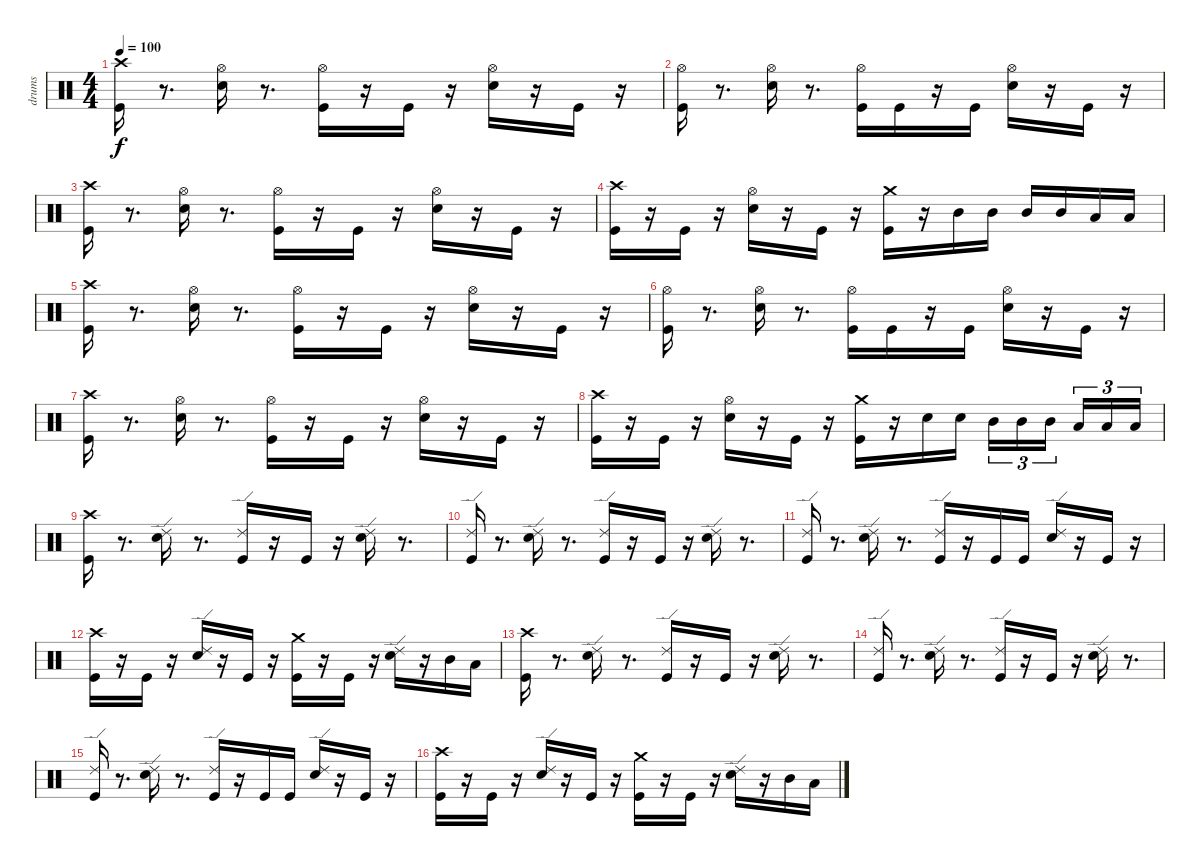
\track ("drums" "drums") {instrument percussion}
\staff {score}
\articulation defaults
\ts (4 4)
\tempo 100
\clef neutral
\ks c
("Crash high (hit)" "Kick (hit)").16{dy f} r.8{d} ("Hi-Hat (open)" "Snare (hit) 2").16 r.8{d} ("Hi-Hat (open)" "Kick (hit)").16 r.16 "Kick (hit)".16 r.16 ("Hi-Hat (open)" "Snare (hit) 2").16 r.16 "Kick (hit)".16 r.16 |
("Hi-Hat (open)" "Kick (hit)").16 r.8{d} ("Hi-Hat (open)" "Snare (hit) 2").16 r.8{d} ("Hi-Hat (open)" "Kick (hit)").16 "Kick (hit)".16 r.16 "Kick (hit)".16 ("Hi-Hat (open)" "Snare (hit) 2").16 r.16 "Kick (hit)".16 r.16 |
("Crash high (hit)" "Kick (hit)").16 r.8{d} ("Hi-Hat (open)" "Snare (hit) 2").16 r.8{d} ("Hi-Hat (open)" "Kick (hit)").16 r.16 "Kick (hit)".16 r.16 ("Hi-Hat (open)" "Snare (hit) 2").16 r.16 "Kick (hit)".16 r.16 |
("Crash high (hit)" "Kick (hit)").16 r.16 "Kick (hit)".16 r.16 ("Hi-Hat (open)" "Snare (hit) 2").16 r.16 "Kick (hit)".16 r.16 ("Crash medium (hit)" "Kick (hit)").16 r.16 "Mid Tom (hit)".16 "Mid Tom (hit)".16 "Mid Tom (hit)".16 "Mid Tom (hit)".16 "Low Tom (hit)".16 "Low Tom (hit)".16 |
("Crash high (hit)" "Kick (hit)").16 r.8{d} ("Hi-Hat (open)" "Snare (hit) 2").16 r.8{d} ("Hi-Hat (open)" "Kick (hit)").16 r.16 "Kick (hit)".16 r.16 ("Hi-Hat (open)" "Snare (hit) 2").16 r.16 "Kick (hit)".16 r.16 |
("Hi-Hat (open)" "Kick (hit)").16 r.8{d} ("Hi-Hat (open)" "Snare (hit) 2").16 r.8{d} ("Hi-Hat (open)" "Kick (hit)").16 "Kick (hit)".16 r.16 "Kick (hit)".16 ("Hi-Hat (open)" "Snare (hit) 2").16 r.16 "Kick (hit)".16 r.16 |
("Crash high (hit)" "Kick (hit)").16 r.8{d} ("Hi-Hat (open)" "Snare (hit) 2").16 r.8{d} ("Hi-Hat (open)" "Kick (hit)").16 r.16 "Kick (hit)".16 r.16 ("Hi-Hat (open)" "Snare (hit) 2").16 r.16 "Kick (hit)".16 r.16 |
("Crash high (hit)" "Kick (hit)").16 r.16 "Kick (hit)".16 r.16 ("Hi-Hat (open)" "Snare (hit) 2").16 r.16 "Kick (hit)".16 r.16 ("Crash medium (hit)" "Kick (hit)").16 r.16 "Snare (hit) 2".16 "Snare (hit) 2".16 "Mid Tom (hit)".16{tu (3 2)} "Mid Tom (hit)".16{tu (3 2)} "Mid Tom (hit)".16{tu (3 2)} "Low Tom (hit)".16{tu (3 2)} "Low Tom (hit)".16{tu (3 2)} "Low Tom (hit)".16{tu (3 2)} |
("Crash high (hit)" "Kick (hit)").16 r.8{d} ("Ride (edge) 2" "Snare (hit) 2").16 r.8{d} ("Ride (edge) 2" "Kick (hit)").16 r.16 "Kick (hit)".16 r.16 ("Ride (edge) 2" "Snare (hit) 2").16 r.8{d} |
("Ride (edge) 2" "Kick (hit)").16 r.8{d} ("Snare (hit) 2" "Ride (edge) 2").16 r.8{d} ("Kick (hit)" "Ride (edge) 2").16 r.16 "Kick (hit)".16 r.16 ("Snare (hit) 2" "Ride (edge) 2").16 r.8{d} |
("Ride (edge) 2" "Kick (hit)").16 r.8{d} ("Ride (edge) 2" "Snare (hit) 2").16 r.8{d} ("Ride (edge) 2" "Kick (hit)").16 r.16 "Kick (hit)".16 "Kick (hit)".16 ("Ride (edge) 2" "Snare (hit) 2").16 r.16 "Kick (hit)".16 r.16 |
("Crash high (hit)" "Kick (hit)").16 r.16 "Kick (hit)".16 r.16 ("Ride (edge) 2" "Snare (hit) 2").16 r.16 "Kick (hit)".16 r.16 ("Crash medium (hit)" "Kick (hit)").16 r.16 "Kick (hit)".16 r.16 ("Ride (edge) 2" "Snare (hit) 2").16 r.16 "Mid Tom (hit)".16 "Low Tom (hit)".16 |
("Crash high (hit)" "Kick (hit)").16 r.8{d} ("Ride (edge) 2" "Snare (hit) 2").16 r.8{d} ("Ride (edge) 2" "Kick (hit)").16 r.16 "Kick (hit)".16 r.16 ("Ride (edge) 2" "Snare (hit) 2").16 r.8{d} |
("Ride (edge) 2" "Kick (hit)").16 r.8{d} ("Snare (hit) 2" "Ride (edge) 2").16 r.8{d} ("Kick (hit)" "Ride (edge) 2").16 r.16 "Kick (hit)".16 r.16 ("Snare (hit) 2" "Ride (edge) 2").16 r.8{d} |
("Ride (edge) 2" "Kick (hit)").16 r.8{d} ("Ride (edge) 2" "Snare (hit) 2").16 r.8{d} ("Ride (edge) 2" "Kick (hit)").16 r.16 "Kick (hit)".16 "Kick (hit)".16 ("Ride (edge) 2" "Snare (hit) 2").16 r.16 "Kick (hit)".16 r.16 |
("Crash high (hit)" "Kick (hit)").16 r.16 "Kick (hit)".16 r.16 ("Ride (edge) 2" "Snare (hit) 2").16 r.16 "Kick (hit)".16 r.16 ("Crash medium (hit)" "Kick (hit)").16 r.16 "Kick (hit)".16 r.16 ("Ride (edge) 2" "Snare (hit) 2").16 r.16 "Mid Tom (hit)".16 "Low Tom (hit)".16
